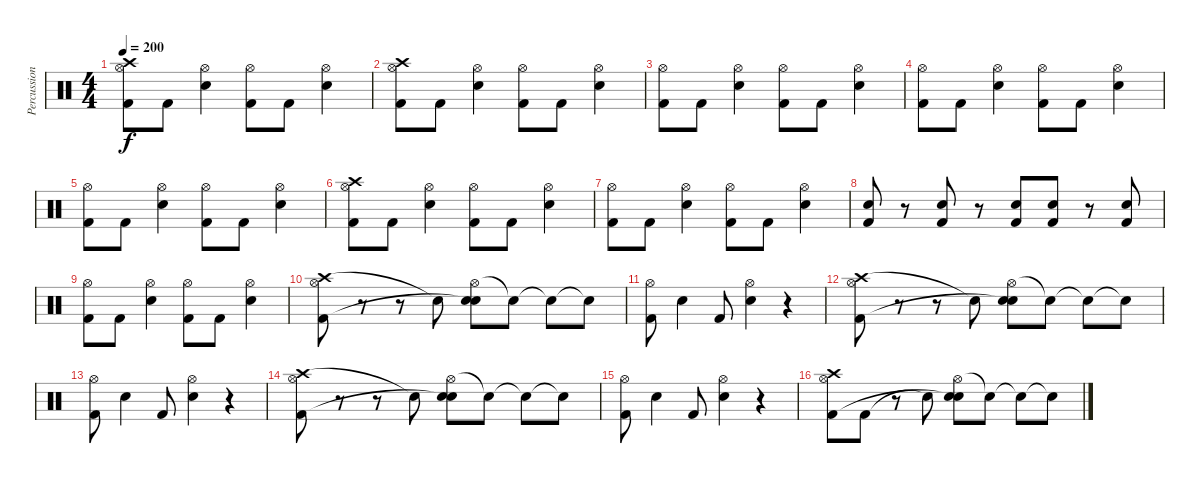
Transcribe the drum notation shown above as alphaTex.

\track ("Percussion" "Percussion") {instrument percussion}
\staff {score}
\articulation defaults
\ts (4 4)
\tempo 200
\clef neutral
\ks c
("Hi-Hat (open)" "Crash high (hit)" "Kick (hit) 2").8{dy f} "Kick (hit) 2".8 ("Hi-Hat (open)" "Electric Snare (hit)").4 ("Hi-Hat (open)" "Kick (hit) 2").8 "Kick (hit) 2".8 ("Hi-Hat (open)" "Electric Snare (hit)").4 |
("Hi-Hat (open)" "Crash high (hit)" "Kick (hit) 2").8 "Kick (hit) 2".8 ("Hi-Hat (open)" "Electric Snare (hit)").4 ("Hi-Hat (open)" "Kick (hit) 2").8 "Kick (hit) 2".8 ("Hi-Hat (open)" "Electric Snare (hit)").4 |
("Hi-Hat (open)" "Kick (hit) 2").8 "Kick (hit) 2".8 ("Hi-Hat (open)" "Electric Snare (hit)").4 ("Hi-Hat (open)" "Kick (hit) 2").8 "Kick (hit) 2".8 ("Hi-Hat (open)" "Electric Snare (hit)").4 |
("Hi-Hat (open)" "Kick (hit) 2").8 "Kick (hit) 2".8 ("Hi-Hat (open)" "Electric Snare (hit)").4 ("Hi-Hat (open)" "Kick (hit) 2").8 "Kick (hit) 2".8 ("Hi-Hat (open)" "Electric Snare (hit)").4 |
("Hi-Hat (open)" "Kick (hit) 2").8 "Kick (hit) 2".8 ("Hi-Hat (open)" "Electric Snare (hit)").4 ("Hi-Hat (open)" "Kick (hit) 2").8 "Kick (hit) 2".8 ("Hi-Hat (open)" "Electric Snare (hit)").4 |
("Hi-Hat (open)" "Crash high (hit)" "Kick (hit) 2").8 "Kick (hit) 2".8 ("Hi-Hat (open)" "Electric Snare (hit)").4 ("Hi-Hat (open)" "Kick (hit) 2").8 "Kick (hit) 2".8 ("Hi-Hat (open)" "Electric Snare (hit)").4 |
("Hi-Hat (open)" "Kick (hit) 2").8 "Kick (hit) 2".8 ("Hi-Hat (open)" "Electric Snare (hit)").4 ("Hi-Hat (open)" "Kick (hit) 2").8 "Kick (hit) 2".8 ("Hi-Hat (open)" "Electric Snare (hit)").4 |
("Electric Snare (hit)" "Kick (hit) 2").8 r.8 ("Electric Snare (hit)" "Kick (hit) 2").8 r.8 ("Electric Snare (hit)" "Kick (hit) 2").8 ("Electric Snare (hit)" "Kick (hit) 2").8 r.8 ("Electric Snare (hit)" "Kick (hit) 2").8 |
("Hi-Hat (open)" "Kick (hit) 2").8 "Kick (hit) 2".8 ("Hi-Hat (open)" "Electric Snare (hit)").4 ("Hi-Hat (open)" "Kick (hit) 2").8 "Kick (hit) 2".8 ("Hi-Hat (open)" "Electric Snare (hit)").4 |
("Crash high (hit)" "Hi-Hat (open)" "Kick (hit) 2").8 r.8 r.8 "Electric Snare (hit)"{t}.8 ("Hi-Hat (open)" "Electric Snare (hit)" "Snare (hit)"{t}).8 "Snare (hit)"{t}.8 "Snare (hit)"{t}.8 "Snare (hit)"{t}.8 |
("Hi-Hat (open)" "Kick (hit) 2").8 "Electric Snare (hit)".4 "Kick (hit) 2".8 ("Hi-Hat (open)" "Electric Snare (hit)").4 r.4 |
("Crash high (hit)" "Hi-Hat (open)" "Kick (hit) 2").8 r.8 r.8 "Electric Snare (hit)"{t}.8 ("Hi-Hat (open)" "Electric Snare (hit)" "Snare (hit)"{t}).8 "Snare (hit)"{t}.8 "Snare (hit)"{t}.8 "Snare (hit)"{t}.8 |
("Hi-Hat (open)" "Kick (hit) 2").8 "Electric Snare (hit)".4 "Kick (hit) 2".8 ("Hi-Hat (open)" "Electric Snare (hit)").4 r.4 |
("Crash high (hit)" "Hi-Hat (open)" "Kick (hit) 2").8 r.8 r.8 "Electric Snare (hit)"{t}.8 ("Hi-Hat (open)" "Electric Snare (hit)" "Snare (hit)"{t}).8 "Snare (hit)"{t}.8 "Snare (hit)"{t}.8 "Snare (hit)"{t}.8 |
("Hi-Hat (open)" "Kick (hit) 2").8 "Electric Snare (hit)".4 "Kick (hit) 2".8 ("Hi-Hat (open)" "Electric Snare (hit)").4 r.4 |
("Crash high (hit)" "Hi-Hat (open)" "Kick (hit) 2").8 "Kick (hit) 2".8 r.8 "Electric Snare (hit)"{t}.8 ("Hi-Hat (open)" "Electric Snare (hit)" "Snare (hit)"{t}).8 "Snare (hit)"{t}.8 "Snare (hit)"{t}.8 "Snare (hit)"{t}.8
